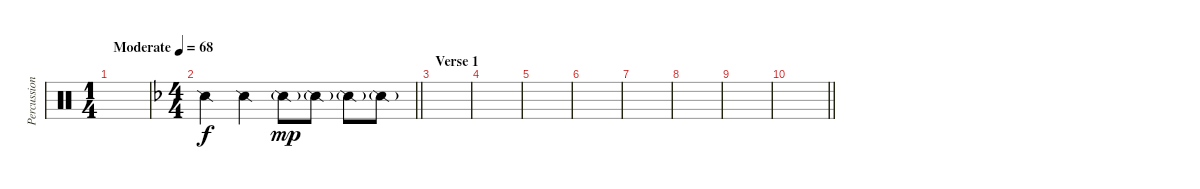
\track ("Percussion" "Percussion") {instrument percussion}
\staff {score}
\articulation defaults
\ts (1 4)
\tempo (68 "Moderate")
\clef neutral
\ks c
|
\ts (4 4)
\barLineRight lightlight
\ks f "Snare (side stick) 2".4 "Snare (side stick) 2".4 "Snare (side stick) 2"{g}.8{dy mp} "Snare (side stick) 2"{g}.8 "Snare (side stick) 2"{g}.8 "Snare (side stick) 2"{g}.8
|
\section ("" "Verse 1")
|
|
|
|
|
|
|
\barLineRight lightlight
